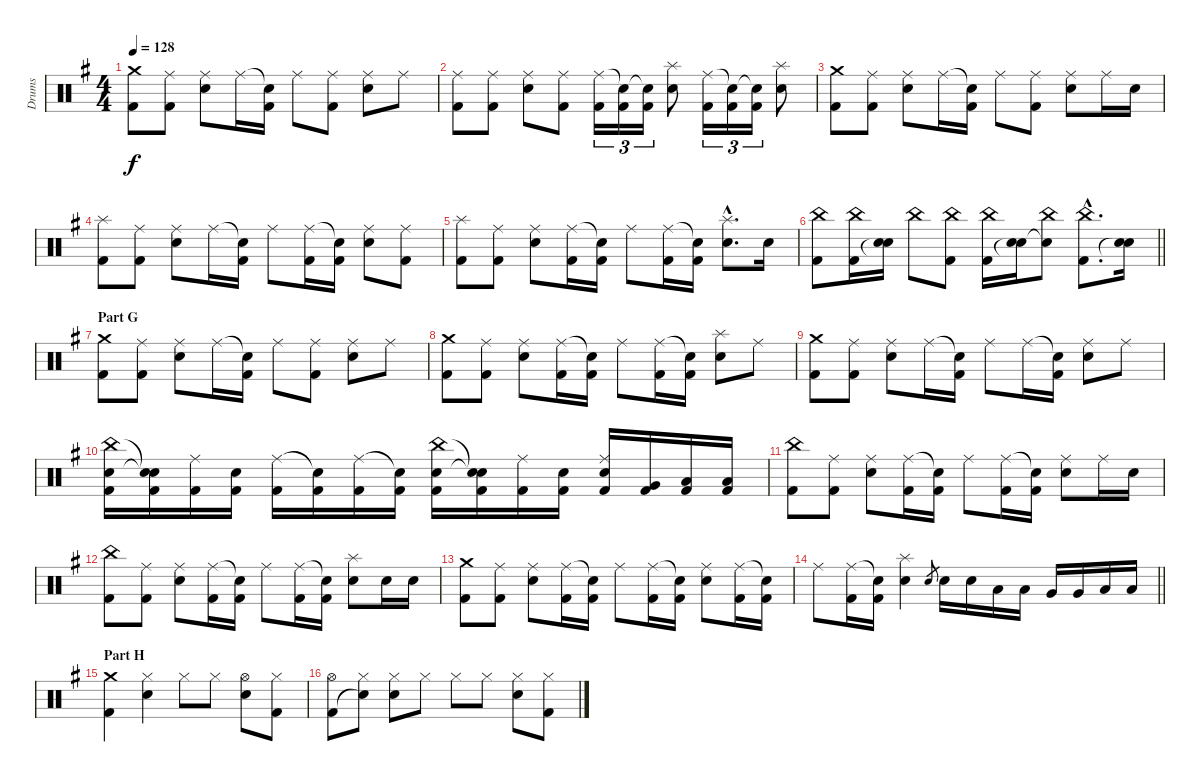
\track ("Drums" "Drums") {instrument percussion}
\staff {score}
\articulation defaults
\ts (4 4)
\tempo 128
\clef neutral
\ks g
("Crash medium (hit)" "Kick (hit) 2").8{dy f} ("Ride (middle)" "Kick (hit) 2").8 ("Ride (middle)" "Electric Snare (hit)").8 "Ride (middle)".16 ("Snare (hit)"{t} "Kick (hit) 2").16 "Ride (middle)".8 ("Ride (middle)" "Kick (hit) 2").8 ("Ride (middle)" "Electric Snare (hit)").8 "Ride (middle)".8 |
("Ride (middle)" "Kick (hit) 2").8 ("Ride (middle)" "Kick (hit) 2").8 ("Ride (middle)" "Electric Snare (hit)").8 ("Ride (middle)" "Kick (hit) 2").8 ("Ride (middle)" "Kick (hit) 2").16{tu (3 2)} ("Snare (hit)"{t} "Kick (hit) 2").16{tu (3 2)} ("Snare (hit)"{t} "Kick (hit) 2").16{tu (3 2)} ("Splash (hit)" "Electric Snare (hit)").8 ("Ride (middle)" "Kick (hit) 2").16{tu (3 2)} ("Snare (hit)"{t} "Kick (hit) 2").16{tu (3 2)} ("Snare (hit)"{t} "Kick (hit) 2").16{tu (3 2)} ("Splash (hit)" "Electric Snare (hit)").8 |
("Crash medium (hit)" "Kick (hit) 2").8 ("Ride (middle)" "Kick (hit) 2").8 ("Ride (middle)" "Electric Snare (hit)").8 "Ride (middle)".16 ("Snare (hit)"{t} "Kick (hit) 2").16 "Ride (middle)".8 ("Ride (middle)" "Kick (hit) 2").8 ("Ride (middle)" "Electric Snare (hit)").8 "Ride (middle)".16 "Electric Snare (hit)".16 |
("Splash (hit)" "Kick (hit) 2").8 ("Ride (middle)" "Kick (hit) 2").8 ("Ride (middle)" "Electric Snare (hit)").8 "Ride (middle)".16 ("Snare (hit)"{t} "Kick (hit) 2").16 "Ride (middle)".8 ("Ride (middle)" "Kick (hit) 2").16 ("Snare (hit)"{t} "Kick (hit) 2").16 ("Ride (middle)" "Electric Snare (hit)").8 ("Ride (middle)" "Kick (hit) 2").8 |
("Splash (hit)" "Kick (hit) 2").8 ("Ride (middle)" "Kick (hit) 2").8 ("Ride (middle)" "Electric Snare (hit)").8 ("Ride (middle)" "Kick (hit) 2").16 ("Snare (hit)"{t} "Kick (hit) 2").16 "Ride (middle)".8 ("Ride (middle)" "Kick (hit) 2").16 ("Snare (hit)"{t} "Kick (hit) 2").16 ("Splash (hit)"{hac} "Electric Snare (hit)"{hac}).8{d} "Electric Snare (hit)".16 |
\barLineRight lightlight
("China (hit)" "Kick (hit) 2").8 ("China (hit)" "Kick (hit) 2").16 ("Electric Snare (hit)" "Snare (hit)"{t}).16 "China (hit)".8 ("China (hit)" "Kick (hit) 2").8 ("China (hit)" "Kick (hit) 2").16 ("Electric Snare (hit)" "Snare (hit)"{t}).16 ("China (hit)" "Snare (hit)"{t}).8 ("China (hit)"{hac} "Kick (hit) 2"{hac}).8{d} ("Electric Snare (hit)" "Snare (hit)"{t}).16 |
\section ("" "Part G")
("Crash medium (hit)" "Kick (hit) 2").8 ("Ride (middle)" "Kick (hit) 2").8 ("Ride (middle)" "Electric Snare (hit)").8 "Ride (middle)".16 ("Snare (hit)"{t} "Kick (hit) 2").16 "Ride (middle)".8 ("Ride (middle)" "Kick (hit) 2").8 ("Ride (middle)" "Electric Snare (hit)").8 "Ride (middle)".8 |
("Crash medium (hit)" "Kick (hit) 2").8 ("Ride (middle)" "Kick (hit) 2").8 ("Ride (middle)" "Electric Snare (hit)").8 ("Ride (middle)" "Kick (hit) 2").16 ("Snare (hit)"{t} "Kick (hit) 2").16 "Ride (middle)".8 ("Ride (middle)" "Kick (hit) 2").16 ("Snare (hit)"{t} "Kick (hit) 2").16 ("Splash (hit)" "Electric Snare (hit)").8 "Ride (middle)".8 |
("Crash medium (hit)" "Kick (hit) 2").8 ("Ride (middle)" "Kick (hit) 2").8 ("Ride (middle)" "Electric Snare (hit)").8 "Ride (middle)".16 ("Snare (hit)"{t} "Kick (hit) 2").16 "Ride (middle)".8 "Ride (middle)".16 ("Snare (hit)"{t} "Kick (hit) 2").16 ("Ride (middle)" "Electric Snare (hit)").8 "Ride (middle)".8 |
("China (hit)" "Electric Snare (hit)" "Kick (hit) 2").16 ("Snare (hit)"{t} "Snare (hit)"{t} "Kick (hit) 2").16 ("Ride (middle)" "Kick (hit) 2").16 ("Electric Snare (hit)" "Kick (hit) 2").16 ("Ride (middle)" "Kick (hit) 2").16 ("Snare (hit)"{t} "Kick (hit) 2").16 ("Ride (middle)" "Kick (hit) 2").16 ("Snare (hit)"{t} "Kick (hit) 2").16 ("China (hit)" "Electric Snare (hit)" "Kick (hit) 2").16 ("Snare (hit)"{t} "Snare (hit)"{t} "Kick (hit) 2").16 ("Ride (middle)" "Kick (hit) 2").16 ("Electric Snare (hit)" "Kick (hit) 2").16 ("Ride (middle)" "Electric Snare (hit)" "Kick (hit) 2").16 ("Very Low Tom (hit)" "Kick (hit) 2").16 ("Low Floor Tom (hit)" "Kick (hit) 2").16 ("Low Floor Tom (hit)" "Kick (hit) 2").16 |
("China (hit)" "Kick (hit) 2").8 ("Ride (middle)" "Kick (hit) 2").8 ("Ride (middle)" "Electric Snare (hit)").8 ("Ride (middle)" "Kick (hit) 2").16 ("Snare (hit)"{t} "Kick (hit) 2").16 "Ride (middle)".8 ("Ride (middle)" "Kick (hit) 2").16 ("Snare (hit)"{t} "Kick (hit) 2").16 ("Ride (middle)" "Electric Snare (hit)").8 "Ride (middle)".16 "Electric Snare (hit)".16 |
("China (hit)" "Kick (hit) 2").8 ("Ride (middle)" "Kick (hit) 2").8 ("Ride (middle)" "Electric Snare (hit)").8 ("Ride (middle)" "Kick (hit) 2").16 ("Snare (hit)"{t} "Kick (hit) 2").16 "Ride (middle)".8 ("Ride (middle)" "Kick (hit) 2").16 ("Snare (hit)"{t} "Kick (hit) 2").16 ("Splash (hit)" "Electric Snare (hit)").8 "Electric Snare (hit)".16 "Electric Snare (hit)".16 |
("Crash medium (hit)" "Kick (hit) 2").8 ("Ride (middle)" "Kick (hit) 2").8 ("Ride (middle)" "Electric Snare (hit)").8 ("Ride (middle)" "Kick (hit) 2").16 ("Snare (hit)"{t} "Kick (hit) 2").16 "Ride (middle)".8 ("Ride (middle)" "Kick (hit) 2").16 ("Snare (hit)"{t} "Kick (hit) 2").16 ("Ride (middle)" "Electric Snare (hit)").8 ("Ride (middle)" "Kick (hit) 2").16 ("Snare (hit)"{t} "Kick (hit) 2").16 |
\barLineRight lightlight "Ride (middle)".8
("Ride (middle)" "Kick (hit) 2").16 ("Snare (hit)"{t} "Kick (hit) 2").16 ("Splash (hit)" "Electric Snare (hit)").4 "Electric Snare (hit)".8{gr} "Electric Snare (hit)".16 "Electric Snare (hit)".16 "Low Tom (hit)".16 "Low Tom (hit)".16 "Very Low Tom (hit)".16 "Very Low Tom (hit)".16 "Low Floor Tom (hit)".16 "Low Floor Tom (hit)".16 |
\section ("" "Part H")
("Crash medium (hit)" "Kick (hit) 2").4 ("Hi-Hat (closed)" "Electric Snare (hit)").4 "Hi-Hat (closed)".8 "Hi-Hat (closed)".8 ("Hi-Hat (open)" "Electric Snare (hit)").8 ("Hi-Hat (closed)" "Kick (hit) 2").8 |
("Hi-Hat (open)" "Kick (hit) 2").8 ("Hi-Hat (closed)" "Snare (hit)"{t}).8 ("Hi-Hat (closed)" "Electric Snare (hit)").8 "Hi-Hat (closed)".8 "Hi-Hat (closed)".8 "Hi-Hat (closed)".8 ("Hi-Hat (closed)" "Electric Snare (hit)").8 ("Hi-Hat (closed)" "Kick (hit) 2").8
